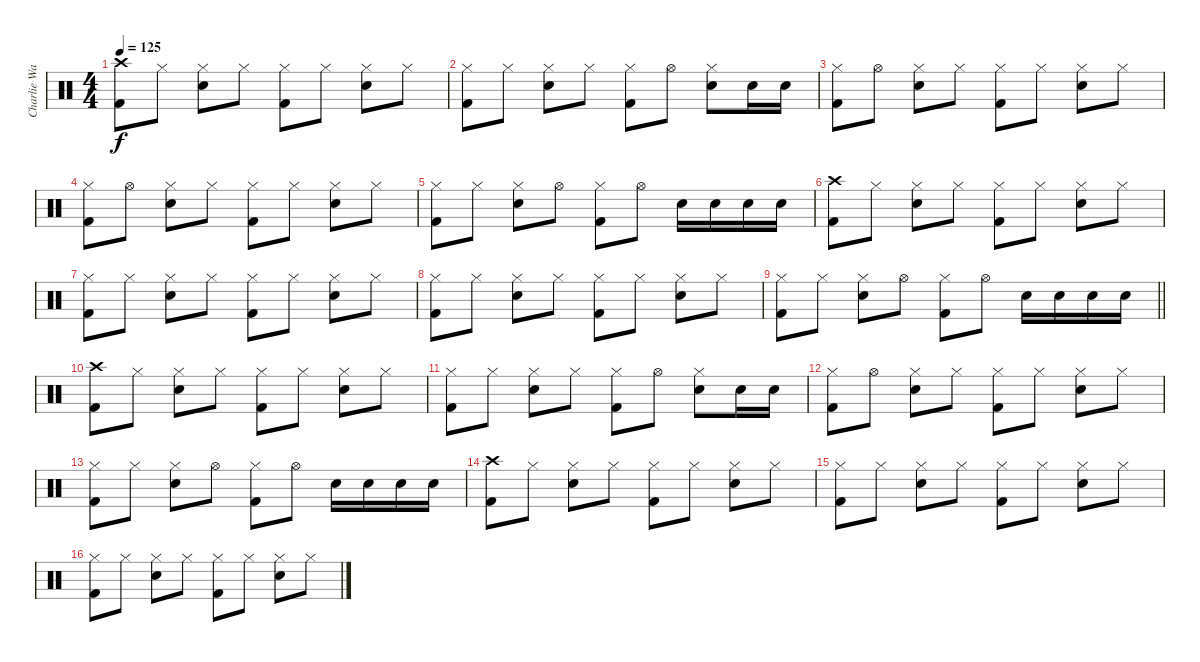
\track ("Charlie Watson" "Charlie Wa") {instrument percussion}
\staff {score}
\articulation defaults
\ts (4 4)
\tempo 125
\clef neutral
\ks c
("Crash high (hit)" "Kick (hit) 2").8{dy f} "Hi-Hat (closed)".8 ("Hi-Hat (closed)" "Snare (hit) 2").8 "Hi-Hat (closed)".8 ("Hi-Hat (closed)" "Kick (hit) 2").8 "Hi-Hat (closed)".8 ("Hi-Hat (closed)" "Snare (hit) 2").8 "Hi-Hat (closed)".8 |
("Hi-Hat (closed)" "Kick (hit) 2").8 "Hi-Hat (closed)".8 ("Hi-Hat (closed)" "Snare (hit) 2").8 "Hi-Hat (closed)".8 ("Hi-Hat (closed)" "Kick (hit) 2").8 "Hi-Hat (open)".8 ("Hi-Hat (closed)" "Snare (hit) 2").8 "Snare (hit) 2".16 "Snare (hit) 2".16 |
("Hi-Hat (closed)" "Kick (hit) 2").8 "Hi-Hat (open)".8 ("Hi-Hat (closed)" "Snare (hit) 2").8 "Hi-Hat (closed)".8 ("Hi-Hat (closed)" "Kick (hit) 2").8 "Hi-Hat (closed)".8 ("Hi-Hat (closed)" "Snare (hit) 2").8 "Hi-Hat (closed)".8 |
("Hi-Hat (closed)" "Kick (hit) 2").8 "Hi-Hat (open)".8 ("Hi-Hat (closed)" "Snare (hit) 2").8 "Hi-Hat (closed)".8 ("Hi-Hat (closed)" "Kick (hit) 2").8 "Hi-Hat (closed)".8 ("Hi-Hat (closed)" "Snare (hit) 2").8 "Hi-Hat (closed)".8 |
("Hi-Hat (closed)" "Kick (hit) 2").8 "Hi-Hat (closed)".8 ("Hi-Hat (closed)" "Snare (hit) 2").8 "Hi-Hat (open)".8 ("Hi-Hat (closed)" "Kick (hit) 2").8 "Hi-Hat (open)".8 "Snare (hit) 2".16 "Snare (hit) 2".16 "Snare (hit) 2".16 "Snare (hit) 2".16 |
("Crash high (hit)" "Kick (hit) 2").8 "Hi-Hat (closed)".8 ("Hi-Hat (closed)" "Snare (hit) 2").8 "Hi-Hat (closed)".8 ("Hi-Hat (closed)" "Kick (hit) 2").8 "Hi-Hat (closed)".8 ("Hi-Hat (closed)" "Snare (hit) 2").8 "Hi-Hat (closed)".8 |
("Hi-Hat (closed)" "Kick (hit) 2").8 "Hi-Hat (closed)".8 ("Hi-Hat (closed)" "Snare (hit) 2").8 "Hi-Hat (closed)".8 ("Hi-Hat (closed)" "Kick (hit) 2").8 "Hi-Hat (closed)".8 ("Hi-Hat (closed)" "Snare (hit) 2").8 "Hi-Hat (closed)".8 |
("Hi-Hat (closed)" "Kick (hit) 2").8 "Hi-Hat (closed)".8 ("Hi-Hat (closed)" "Snare (hit) 2").8 "Hi-Hat (closed)".8 ("Hi-Hat (closed)" "Kick (hit) 2").8 "Hi-Hat (closed)".8 ("Hi-Hat (closed)" "Snare (hit) 2").8 "Hi-Hat (closed)".8 |
\barLineRight lightlight
("Hi-Hat (closed)" "Kick (hit) 2").8 "Hi-Hat (closed)".8 ("Hi-Hat (closed)" "Snare (hit) 2").8 "Hi-Hat (open)".8 ("Hi-Hat (closed)" "Kick (hit) 2").8 "Hi-Hat (open)".8 "Snare (hit) 2".16 "Snare (hit) 2".16 "Snare (hit) 2".16 "Snare (hit) 2".16 |
("Crash high (hit)" "Kick (hit) 2").8 "Hi-Hat (closed)".8 ("Hi-Hat (closed)" "Snare (hit) 2").8 "Hi-Hat (closed)".8 ("Hi-Hat (closed)" "Kick (hit) 2").8 "Hi-Hat (closed)".8 ("Hi-Hat (closed)" "Snare (hit) 2").8 "Hi-Hat (closed)".8 |
("Hi-Hat (closed)" "Kick (hit) 2").8 "Hi-Hat (closed)".8 ("Hi-Hat (closed)" "Snare (hit) 2").8 "Hi-Hat (closed)".8 ("Hi-Hat (closed)" "Kick (hit) 2").8 "Hi-Hat (open)".8 ("Hi-Hat (closed)" "Snare (hit) 2").8 "Snare (hit) 2".16 "Snare (hit) 2".16 |
("Hi-Hat (closed)" "Kick (hit) 2").8 "Hi-Hat (open)".8 ("Hi-Hat (closed)" "Snare (hit) 2").8 "Hi-Hat (closed)".8 ("Hi-Hat (closed)" "Kick (hit) 2").8 "Hi-Hat (closed)".8 ("Hi-Hat (closed)" "Snare (hit) 2").8 "Hi-Hat (closed)".8 |
("Hi-Hat (closed)" "Kick (hit) 2").8 "Hi-Hat (closed)".8 ("Hi-Hat (closed)" "Snare (hit) 2").8 "Hi-Hat (open)".8 ("Hi-Hat (closed)" "Kick (hit) 2").8 "Hi-Hat (open)".8 "Snare (hit) 2".16 "Snare (hit) 2".16 "Snare (hit) 2".16 "Snare (hit) 2".16 |
("Crash high (hit)" "Kick (hit) 2").8 "Hi-Hat (closed)".8 ("Hi-Hat (closed)" "Snare (hit) 2").8 "Hi-Hat (closed)".8 ("Hi-Hat (closed)" "Kick (hit) 2").8 "Hi-Hat (closed)".8 ("Hi-Hat (closed)" "Snare (hit) 2").8 "Hi-Hat (closed)".8 |
("Hi-Hat (closed)" "Kick (hit) 2").8 "Hi-Hat (closed)".8 ("Hi-Hat (closed)" "Snare (hit) 2").8 "Hi-Hat (closed)".8 ("Hi-Hat (closed)" "Kick (hit) 2").8 "Hi-Hat (closed)".8 ("Hi-Hat (closed)" "Snare (hit) 2").8 "Hi-Hat (closed)".8 |
("Hi-Hat (closed)" "Kick (hit) 2").8 "Hi-Hat (closed)".8 ("Hi-Hat (closed)" "Snare (hit) 2").8 "Hi-Hat (closed)".8 ("Hi-Hat (closed)" "Kick (hit) 2").8 "Hi-Hat (closed)".8 ("Hi-Hat (closed)" "Snare (hit) 2").8 "Hi-Hat (closed)".8
